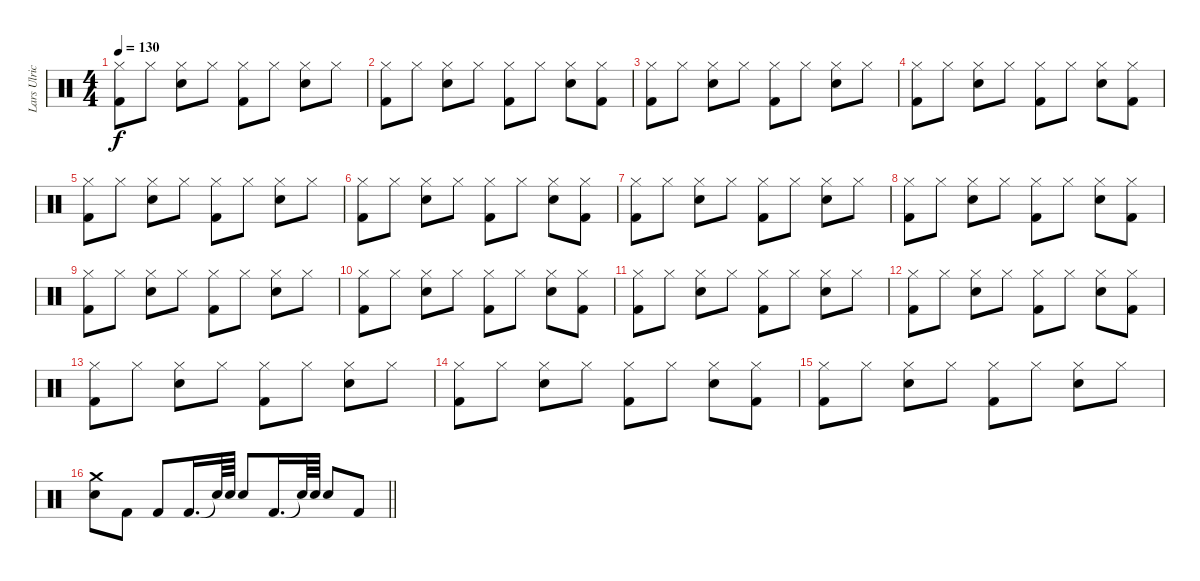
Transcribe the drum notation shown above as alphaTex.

\track ("Lars Ulrich (Drums)" "Lars Ulric") {instrument percussion}
\staff {score}
\articulation defaults
\ts (4 4)
\tempo 130
\clef neutral
\ks c
("Kick (hit) 2" "Hi-Hat (closed)").8{dy f} "Hi-Hat (closed)".8 ("Snare (hit) 2" "Hi-Hat (closed)").8 "Hi-Hat (closed)".8 ("Kick (hit) 2" "Hi-Hat (closed)").8 "Hi-Hat (closed)".8 ("Snare (hit) 2" "Hi-Hat (closed)").8 "Hi-Hat (closed)".8 |
("Kick (hit) 2" "Hi-Hat (closed)").8{volume 6} "Hi-Hat (closed)".8 ("Snare (hit) 2" "Hi-Hat (closed)").8 "Hi-Hat (closed)".8 ("Kick (hit) 2" "Hi-Hat (closed)").8 "Hi-Hat (closed)".8 ("Snare (hit) 2" "Hi-Hat (closed)").8 ("Kick (hit) 2" "Hi-Hat (closed)").8 |
("Kick (hit) 2" "Hi-Hat (closed)").8 "Hi-Hat (closed)".8 ("Snare (hit) 2" "Hi-Hat (closed)").8 "Hi-Hat (closed)".8 ("Kick (hit) 2" "Hi-Hat (closed)").8 "Hi-Hat (closed)".8 ("Snare (hit) 2" "Hi-Hat (closed)").8 "Hi-Hat (closed)".8 |
("Kick (hit) 2" "Hi-Hat (closed)").8 "Hi-Hat (closed)".8 ("Snare (hit) 2" "Hi-Hat (closed)").8 "Hi-Hat (closed)".8 ("Kick (hit) 2" "Hi-Hat (closed)").8 "Hi-Hat (closed)".8 ("Snare (hit) 2" "Hi-Hat (closed)").8 ("Kick (hit) 2" "Hi-Hat (closed)").8 |
("Kick (hit) 2" "Hi-Hat (closed)").8{volume 9} "Hi-Hat (closed)".8 ("Snare (hit) 2" "Hi-Hat (closed)").8 "Hi-Hat (closed)".8 ("Kick (hit) 2" "Hi-Hat (closed)").8 "Hi-Hat (closed)".8 ("Snare (hit) 2" "Hi-Hat (closed)").8 "Hi-Hat (closed)".8 |
("Kick (hit) 2" "Hi-Hat (closed)").8 "Hi-Hat (closed)".8 ("Snare (hit) 2" "Hi-Hat (closed)").8 "Hi-Hat (closed)".8 ("Kick (hit) 2" "Hi-Hat (closed)").8 "Hi-Hat (closed)".8 ("Snare (hit) 2" "Hi-Hat (closed)").8 ("Kick (hit) 2" "Hi-Hat (closed)").8 |
("Kick (hit) 2" "Hi-Hat (closed)").8 "Hi-Hat (closed)".8 ("Snare (hit) 2" "Hi-Hat (closed)").8 "Hi-Hat (closed)".8 ("Kick (hit) 2" "Hi-Hat (closed)").8 "Hi-Hat (closed)".8 ("Snare (hit) 2" "Hi-Hat (closed)").8 "Hi-Hat (closed)".8 |
("Kick (hit) 2" "Hi-Hat (closed)").8{volume 12} "Hi-Hat (closed)".8 ("Snare (hit) 2" "Hi-Hat (closed)").8 "Hi-Hat (closed)".8 ("Kick (hit) 2" "Hi-Hat (closed)").8 "Hi-Hat (closed)".8 ("Snare (hit) 2" "Hi-Hat (closed)").8 ("Kick (hit) 2" "Hi-Hat (closed)").8 |
("Kick (hit) 2" "Hi-Hat (closed)").8 "Hi-Hat (closed)".8 ("Snare (hit) 2" "Hi-Hat (closed)").8 "Hi-Hat (closed)".8 ("Kick (hit) 2" "Hi-Hat (closed)").8 "Hi-Hat (closed)".8 ("Snare (hit) 2" "Hi-Hat (closed)").8 "Hi-Hat (closed)".8 |
("Kick (hit) 2" "Hi-Hat (closed)").8 "Hi-Hat (closed)".8 ("Snare (hit) 2" "Hi-Hat (closed)").8 "Hi-Hat (closed)".8 ("Kick (hit) 2" "Hi-Hat (closed)").8 "Hi-Hat (closed)".8 ("Snare (hit) 2" "Hi-Hat (closed)").8 ("Kick (hit) 2" "Hi-Hat (closed)").8 |
("Kick (hit) 2" "Hi-Hat (closed)").8{volume 14} "Hi-Hat (closed)".8 ("Snare (hit) 2" "Hi-Hat (closed)").8 "Hi-Hat (closed)".8 ("Kick (hit) 2" "Hi-Hat (closed)").8 "Hi-Hat (closed)".8 ("Snare (hit) 2" "Hi-Hat (closed)").8 "Hi-Hat (closed)".8 |
("Kick (hit) 2" "Hi-Hat (closed)").8 "Hi-Hat (closed)".8 ("Snare (hit) 2" "Hi-Hat (closed)").8 "Hi-Hat (closed)".8 ("Kick (hit) 2" "Hi-Hat (closed)").8 "Hi-Hat (closed)".8 ("Snare (hit) 2" "Hi-Hat (closed)").8 ("Kick (hit) 2" "Hi-Hat (closed)").8 |
("Kick (hit) 2" "Hi-Hat (closed)").8 "Hi-Hat (closed)".8 ("Snare (hit) 2" "Hi-Hat (closed)").8 "Hi-Hat (closed)".8 ("Kick (hit) 2" "Hi-Hat (closed)").8 "Hi-Hat (closed)".8 ("Snare (hit) 2" "Hi-Hat (closed)").8 "Hi-Hat (closed)".8 |
("Kick (hit) 2" "Hi-Hat (closed)").8{volume 16} "Hi-Hat (closed)".8 ("Snare (hit) 2" "Hi-Hat (closed)").8 "Hi-Hat (closed)".8 ("Kick (hit) 2" "Hi-Hat (closed)").8 "Hi-Hat (closed)".8 ("Snare (hit) 2" "Hi-Hat (closed)").8 ("Kick (hit) 2" "Hi-Hat (closed)").8 |
("Kick (hit) 2" "Hi-Hat (closed)").8 "Hi-Hat (closed)".8 ("Snare (hit) 2" "Hi-Hat (closed)").8 "Hi-Hat (closed)".8 ("Kick (hit) 2" "Hi-Hat (closed)").8 "Hi-Hat (closed)".8 ("Snare (hit) 2" "Hi-Hat (closed)").8 "Hi-Hat (closed)".8 |
\barLineRight lightlight
("Snare (hit) 2" "Crash medium (hit)").8 "Kick (hit) 2".8 "Kick (hit) 2".8 "Kick (hit) 2".16{d} "Snare (hit)"{t}.64 "Snare (hit) 2".64 "Snare (hit) 2".8 "Kick (hit) 2".16{d} "Snare (hit)"{t}.64 "Snare (hit) 2".64 "Snare (hit) 2".8 "Kick (hit) 2".8
